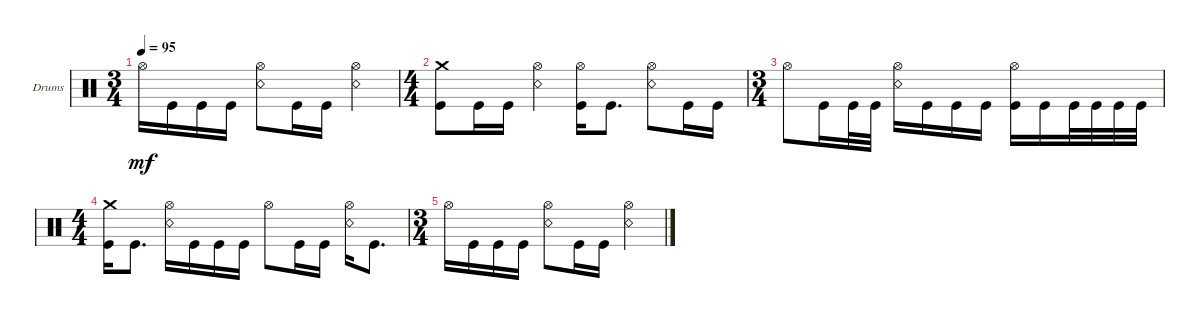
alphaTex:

\defaultSystemsLayout 4
\bracketExtendMode groupsimilarinstruments
\firstSystemTrackNameOrientation horizontal
\otherSystemsTrackNameOrientation horizontal
\track ("Drumkit" "Drums") {instrument percussion}
\staff {score}
\articulation defaults
\ts (3 4)
\tempo 95
\clef neutral
\ks c "Hi-Hat (open)".16{dy mf} "Kick (hit)".16 "Kick (hit)".16 "Kick (hit)".16
("Hi-Hat (open)" "Snare (rim shot)").8 "Kick (hit)".16 "Kick (hit)".16 ("Hi-Hat (open)" "Snare (rim shot)").4 |
\ts (4 4)
("Kick (hit)" "Crash medium (hit)").8 "Kick (hit)".16 "Kick (hit)".16 ("Hi-Hat (open)" "Snare (rim shot)").4 ("Kick (hit)" "Hi-Hat (open)").16 "Kick (hit)".8{d} ("Hi-Hat (open)" "Snare (rim shot)").8 "Kick (hit)".16 "Kick (hit)".16 |
\ts (3 4)
"Hi-Hat (open)".8 "Kick (hit)".16 "Kick (hit)".32 "Kick (hit)".32 ("Hi-Hat (open)" "Snare (rim shot)").16 "Kick (hit)".16 "Kick (hit)".16 "Kick (hit)".16 ("Kick (hit)" "Hi-Hat (open)").16 "Kick (hit)".16 "Kick (hit)".32 "Kick (hit)".32 "Kick (hit)".32 "Kick (hit)".32 |
\ts (4 4)
("Kick (hit)" "Crash medium (hit)").16 "Kick (hit)".8{d} ("Hi-Hat (open)" "Snare (rim shot)").16 "Kick (hit)".16 "Kick (hit)".16 "Kick (hit)".16 "Hi-Hat (open)".8 "Kick (hit)".16 "Kick (hit)".16 ("Hi-Hat (open)" "Snare (rim shot)").16 "Kick (hit)".8{d} |
\ts (3 4)
"Hi-Hat (open)".16 "Kick (hit)".16 "Kick (hit)".16 "Kick (hit)".16 ("Hi-Hat (open)" "Snare (rim shot)").8 "Kick (hit)".16 "Kick (hit)".16 ("Hi-Hat (open)" "Snare (rim shot)").4
